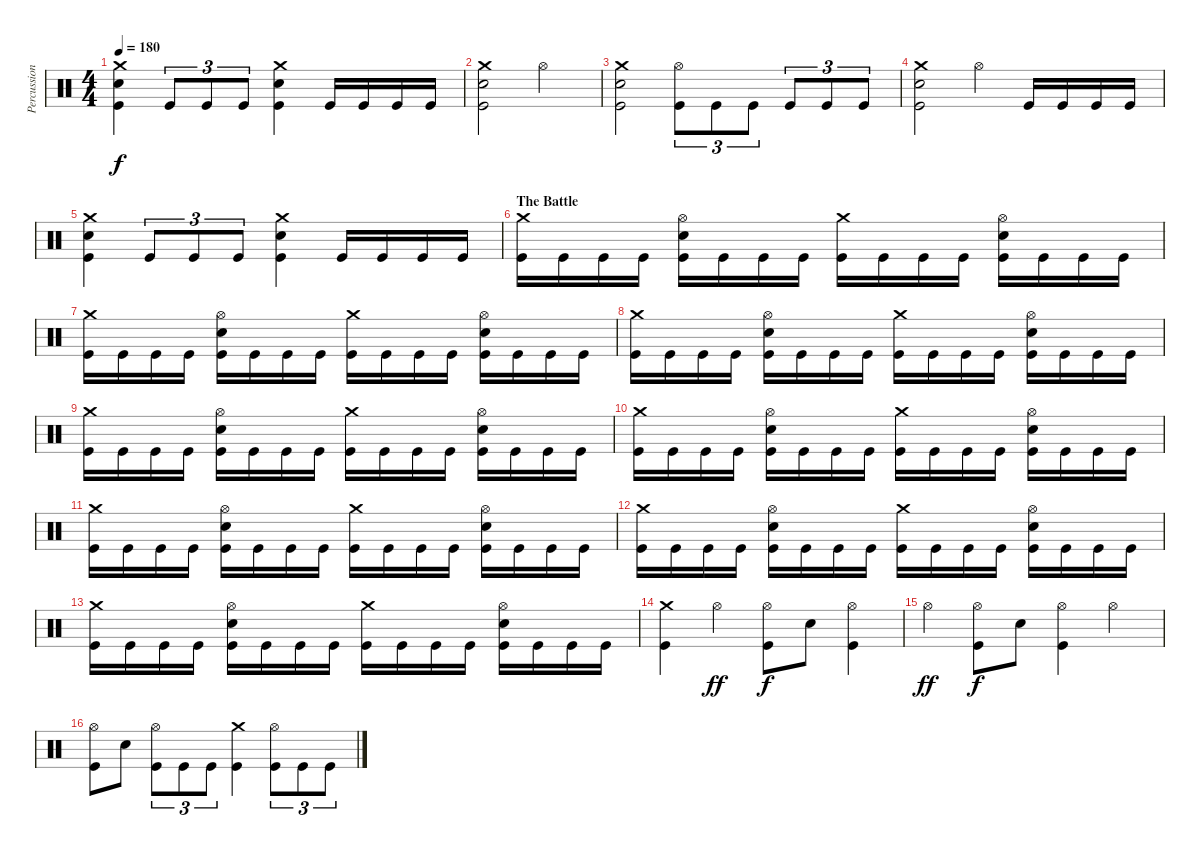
\track ("Percussion" "Percussion") {instrument percussion}
\staff {score}
\articulation defaults
\ts (4 4)
\tempo 180
\clef neutral
\ks c
("Crash medium (hit)" "Electric Snare (hit)" "Kick (hit)").4{dy f} "Kick (hit)".8{tu (3 2)} "Kick (hit)".8{tu (3 2)} "Kick (hit)".8{tu (3 2)} ("Crash medium (hit)" "Electric Snare (hit)" "Kick (hit)").4 "Kick (hit)".16 "Kick (hit)".16 "Kick (hit)".16 "Kick (hit)".16 |
("Crash medium (hit)" "Electric Snare (hit)" "Kick (hit)").2 "Hi-Hat (open)".2 |
("Crash medium (hit)" "Electric Snare (hit)" "Kick (hit)").2 ("Hi-Hat (open)" "Kick (hit)").8{tu (3 2)} "Kick (hit)".8{tu (3 2)} "Kick (hit)".8{tu (3 2)} "Kick (hit)".8{tu (3 2)} "Kick (hit)".8{tu (3 2)} "Kick (hit)".8{tu (3 2)} |
("Crash medium (hit)" "Electric Snare (hit)" "Kick (hit)").2 "Hi-Hat (open)".4 "Kick (hit)".16 "Kick (hit)".16 "Kick (hit)".16 "Kick (hit)".16 |
("Crash medium (hit)" "Electric Snare (hit)" "Kick (hit)").4 "Kick (hit)".8{tu (3 2)} "Kick (hit)".8{tu (3 2)} "Kick (hit)".8{tu (3 2)} ("Crash medium (hit)" "Electric Snare (hit)" "Kick (hit)").4 "Kick (hit)".16 "Kick (hit)".16 "Kick (hit)".16 "Kick (hit)".16 |
\section ("" "The Battle")
("Crash medium (hit)" "Kick (hit)").16 "Kick (hit)".16 "Kick (hit)".16 "Kick (hit)".16 ("Hi-Hat (open)" "Electric Snare (hit)" "Kick (hit)").16 "Kick (hit)".16 "Kick (hit)".16 "Kick (hit)".16 ("Crash medium (hit)" "Kick (hit)").16 "Kick (hit)".16 "Kick (hit)".16 "Kick (hit)".16 ("Hi-Hat (open)" "Electric Snare (hit)" "Kick (hit)").16 "Kick (hit)".16 "Kick (hit)".16 "Kick (hit)".16 |
("Crash medium (hit)" "Kick (hit)").16 "Kick (hit)".16 "Kick (hit)".16 "Kick (hit)".16 ("Hi-Hat (open)" "Electric Snare (hit)" "Kick (hit)").16 "Kick (hit)".16 "Kick (hit)".16 "Kick (hit)".16 ("Crash medium (hit)" "Kick (hit)").16 "Kick (hit)".16 "Kick (hit)".16 "Kick (hit)".16 ("Hi-Hat (open)" "Electric Snare (hit)" "Kick (hit)").16 "Kick (hit)".16 "Kick (hit)".16 "Kick (hit)".16 |
("Crash medium (hit)" "Kick (hit)").16 "Kick (hit)".16 "Kick (hit)".16 "Kick (hit)".16 ("Hi-Hat (open)" "Electric Snare (hit)" "Kick (hit)").16 "Kick (hit)".16 "Kick (hit)".16 "Kick (hit)".16 ("Crash medium (hit)" "Kick (hit)").16 "Kick (hit)".16 "Kick (hit)".16 "Kick (hit)".16 ("Hi-Hat (open)" "Electric Snare (hit)" "Kick (hit)").16 "Kick (hit)".16 "Kick (hit)".16 "Kick (hit)".16 |
("Crash medium (hit)" "Kick (hit)").16 "Kick (hit)".16 "Kick (hit)".16 "Kick (hit)".16 ("Hi-Hat (open)" "Electric Snare (hit)" "Kick (hit)").16 "Kick (hit)".16 "Kick (hit)".16 "Kick (hit)".16 ("Crash medium (hit)" "Kick (hit)").16 "Kick (hit)".16 "Kick (hit)".16 "Kick (hit)".16 ("Hi-Hat (open)" "Electric Snare (hit)" "Kick (hit)").16 "Kick (hit)".16 "Kick (hit)".16 "Kick (hit)".16 |
("Crash medium (hit)" "Kick (hit)").16 "Kick (hit)".16 "Kick (hit)".16 "Kick (hit)".16 ("Hi-Hat (open)" "Electric Snare (hit)" "Kick (hit)").16 "Kick (hit)".16 "Kick (hit)".16 "Kick (hit)".16 ("Crash medium (hit)" "Kick (hit)").16 "Kick (hit)".16 "Kick (hit)".16 "Kick (hit)".16 ("Hi-Hat (open)" "Electric Snare (hit)" "Kick (hit)").16 "Kick (hit)".16 "Kick (hit)".16 "Kick (hit)".16 |
("Crash medium (hit)" "Kick (hit)").16 "Kick (hit)".16 "Kick (hit)".16 "Kick (hit)".16 ("Hi-Hat (open)" "Electric Snare (hit)" "Kick (hit)").16 "Kick (hit)".16 "Kick (hit)".16 "Kick (hit)".16 ("Crash medium (hit)" "Kick (hit)").16 "Kick (hit)".16 "Kick (hit)".16 "Kick (hit)".16 ("Hi-Hat (open)" "Electric Snare (hit)" "Kick (hit)").16 "Kick (hit)".16 "Kick (hit)".16 "Kick (hit)".16 |
("Crash medium (hit)" "Kick (hit)").16 "Kick (hit)".16 "Kick (hit)".16 "Kick (hit)".16 ("Hi-Hat (open)" "Electric Snare (hit)" "Kick (hit)").16 "Kick (hit)".16 "Kick (hit)".16 "Kick (hit)".16 ("Crash medium (hit)" "Kick (hit)").16 "Kick (hit)".16 "Kick (hit)".16 "Kick (hit)".16 ("Hi-Hat (open)" "Electric Snare (hit)" "Kick (hit)").16 "Kick (hit)".16 "Kick (hit)".16 "Kick (hit)".16 |
("Crash medium (hit)" "Kick (hit)").16 "Kick (hit)".16 "Kick (hit)".16 "Kick (hit)".16 ("Hi-Hat (open)" "Electric Snare (hit)" "Kick (hit)").16 "Kick (hit)".16 "Kick (hit)".16 "Kick (hit)".16 ("Crash medium (hit)" "Kick (hit)").16 "Kick (hit)".16 "Kick (hit)".16 "Kick (hit)".16 ("Hi-Hat (open)" "Electric Snare (hit)" "Kick (hit)").16 "Kick (hit)".16 "Kick (hit)".16 "Kick (hit)".16 |
("Crash medium (hit)" "Kick (hit)").4 "Hi-Hat (open)".4{dy ff} ("Hi-Hat (open)" "Kick (hit)").8{dy f} "Electric Snare (hit)".8 ("Hi-Hat (open)" "Kick (hit)").4 |
"Hi-Hat (open)".4{dy ff} ("Hi-Hat (open)" "Kick (hit)").8{dy f} "Electric Snare (hit)".8 ("Hi-Hat (open)" "Kick (hit)").4 "Hi-Hat (open)".4 |
("Hi-Hat (open)" "Kick (hit)").8 "Electric Snare (hit)".8 ("Hi-Hat (open)" "Kick (hit)").8{tu (3 2)} "Kick (hit)".8{tu (3 2)} "Kick (hit)".8{tu (3 2)} ("Crash medium (hit)" "Kick (hit)").4 ("Hi-Hat (open)" "Kick (hit)").8{tu (3 2)} "Kick (hit)".8{tu (3 2)} "Kick (hit)".8{tu (3 2)}
